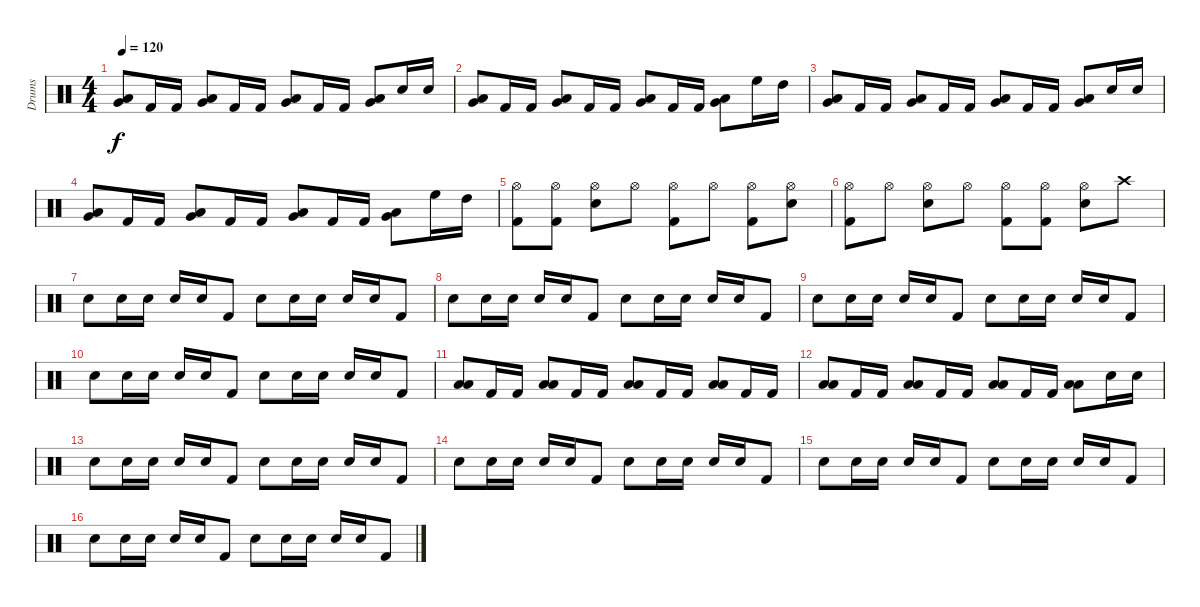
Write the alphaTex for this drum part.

\track ("Drums" "Drums") {instrument percussion}
\staff {score}
\articulation defaults
\ts (4 4)
\tempo 120
\clef neutral
\ks c
("Low Floor Tom (hit)" "Very Low Tom (hit)").8{dy f} "Kick (hit) 2".16 "Kick (hit) 2".16 ("Low Floor Tom (hit)" "Very Low Tom (hit)").8 "Kick (hit) 2".16 "Kick (hit) 2".16 ("Low Floor Tom (hit)" "Very Low Tom (hit)").8 "Kick (hit) 2".16 "Kick (hit) 2".16 ("Low Floor Tom (hit)" "Very Low Tom (hit)").8 "Electric Snare (hit)".16 "Electric Snare (hit)".16 |
("Low Floor Tom (hit)" "Very Low Tom (hit)").8 "Kick (hit) 2".16 "Kick (hit) 2".16 ("Low Floor Tom (hit)" "Very Low Tom (hit)").8 "Kick (hit) 2".16 "Kick (hit) 2".16 ("Low Floor Tom (hit)" "Very Low Tom (hit)").8 "Kick (hit) 2".16 "Kick (hit) 2".16 ("Low Floor Tom (hit)" "Very Low Tom (hit)").8 "High Floor Tom (hit)".16 "High Tom (hit)".16 |
("Low Floor Tom (hit)" "Very Low Tom (hit)").8 "Kick (hit) 2".16 "Kick (hit) 2".16 ("Low Floor Tom (hit)" "Very Low Tom (hit)").8 "Kick (hit) 2".16 "Kick (hit) 2".16 ("Low Floor Tom (hit)" "Very Low Tom (hit)").8 "Kick (hit) 2".16 "Kick (hit) 2".16 ("Low Floor Tom (hit)" "Very Low Tom (hit)").8 "Electric Snare (hit)".16 "Electric Snare (hit)".16 |
("Low Floor Tom (hit)" "Very Low Tom (hit)").8 "Kick (hit) 2".16 "Kick (hit) 2".16 ("Low Floor Tom (hit)" "Very Low Tom (hit)").8 "Kick (hit) 2".16 "Kick (hit) 2".16 ("Low Floor Tom (hit)" "Very Low Tom (hit)").8 "Kick (hit) 2".16 "Kick (hit) 2".16 ("Low Floor Tom (hit)" "Very Low Tom (hit)").8 "High Floor Tom (hit)".16 "High Tom (hit)".16 |
("Hi-Hat (open)" "Kick (hit) 2").8 ("Hi-Hat (open)" "Kick (hit) 2").8 ("Hi-Hat (open)" "Electric Snare (hit)").8 "Hi-Hat (open)".8 ("Hi-Hat (open)" "Kick (hit) 2").8 "Hi-Hat (open)".8 ("Hi-Hat (open)" "Kick (hit) 2").8 ("Hi-Hat (open)" "Electric Snare (hit)").8 |
("Hi-Hat (open)" "Kick (hit) 2").8 "Hi-Hat (open)".8 ("Hi-Hat (open)" "Electric Snare (hit)").8 "Hi-Hat (open)".8 ("Hi-Hat (open)" "Kick (hit) 2").8 ("Hi-Hat (open)" "Kick (hit) 2").8 ("Hi-Hat (open)" "Electric Snare (hit)").8 "Crash high (hit)".8 |
"Snare (hit) 2".8{volume 7} "Snare (hit) 2".16 "Snare (hit) 2".16 "Snare (hit) 2".16 "Snare (hit) 2".16 "Kick (hit) 2".8 "Snare (hit) 2".8 "Snare (hit) 2".16 "Snare (hit) 2".16 "Snare (hit) 2".16 "Snare (hit) 2".16 "Kick (hit) 2".8 |
"Snare (hit) 2".8{volume 7} "Snare (hit) 2".16 "Snare (hit) 2".16 "Snare (hit) 2".16 "Snare (hit) 2".16 "Kick (hit) 2".8 "Snare (hit) 2".8 "Snare (hit) 2".16 "Snare (hit) 2".16 "Snare (hit) 2".16 "Snare (hit) 2".16 "Kick (hit) 2".8 |
"Snare (hit) 2".8{volume 7} "Snare (hit) 2".16 "Snare (hit) 2".16 "Snare (hit) 2".16 "Snare (hit) 2".16 "Kick (hit) 2".8 "Snare (hit) 2".8 "Snare (hit) 2".16 "Snare (hit) 2".16 "Snare (hit) 2".16 "Snare (hit) 2".16 "Kick (hit) 2".8 |
"Snare (hit) 2".8{volume 7} "Snare (hit) 2".16 "Snare (hit) 2".16 "Snare (hit) 2".16 "Snare (hit) 2".16 "Kick (hit) 2".8 "Snare (hit) 2".8 "Snare (hit) 2".16 "Snare (hit) 2".16 "Snare (hit) 2".16 "Snare (hit) 2".16 "Kick (hit) 2".8 |
("Low Floor Tom (hit)" "Low Tom (hit)").8 "Kick (hit) 2".16 "Kick (hit) 2".16 ("Low Floor Tom (hit)" "Low Tom (hit)").8 "Kick (hit) 2".16 "Kick (hit) 2".16 ("Low Floor Tom (hit)" "Low Tom (hit)").8 "Kick (hit) 2".16 "Kick (hit) 2".16 ("Low Floor Tom (hit)" "Low Tom (hit)").8 "Kick (hit) 2".16 "Kick (hit) 2".16 |
("Low Floor Tom (hit)" "Low Tom (hit)").8 "Kick (hit) 2".16 "Kick (hit) 2".16 ("Low Floor Tom (hit)" "Low Tom (hit)").8 "Kick (hit) 2".16 "Kick (hit) 2".16 ("Low Floor Tom (hit)" "Low Tom (hit)").8 "Kick (hit) 2".16 "Kick (hit) 2".16 ("Low Floor Tom (hit)" "Low Tom (hit)").8 "Electric Snare (hit)".16 "Electric Snare (hit)".16 |
"Snare (hit) 2".8{volume 7} "Snare (hit) 2".16 "Snare (hit) 2".16 "Snare (hit) 2".16 "Snare (hit) 2".16 "Kick (hit) 2".8 "Snare (hit) 2".8 "Snare (hit) 2".16 "Snare (hit) 2".16 "Snare (hit) 2".16 "Snare (hit) 2".16 "Kick (hit) 2".8 |
"Snare (hit) 2".8{volume 7} "Snare (hit) 2".16 "Snare (hit) 2".16 "Snare (hit) 2".16 "Snare (hit) 2".16 "Kick (hit) 2".8 "Snare (hit) 2".8 "Snare (hit) 2".16 "Snare (hit) 2".16 "Snare (hit) 2".16 "Snare (hit) 2".16 "Kick (hit) 2".8 |
"Snare (hit) 2".8{volume 7} "Snare (hit) 2".16 "Snare (hit) 2".16 "Snare (hit) 2".16 "Snare (hit) 2".16 "Kick (hit) 2".8 "Snare (hit) 2".8 "Snare (hit) 2".16 "Snare (hit) 2".16 "Snare (hit) 2".16 "Snare (hit) 2".16 "Kick (hit) 2".8 |
"Snare (hit) 2".8{volume 7} "Snare (hit) 2".16 "Snare (hit) 2".16 "Snare (hit) 2".16 "Snare (hit) 2".16 "Kick (hit) 2".8 "Snare (hit) 2".8 "Snare (hit) 2".16 "Snare (hit) 2".16 "Snare (hit) 2".16 "Snare (hit) 2".16 "Kick (hit) 2".8
